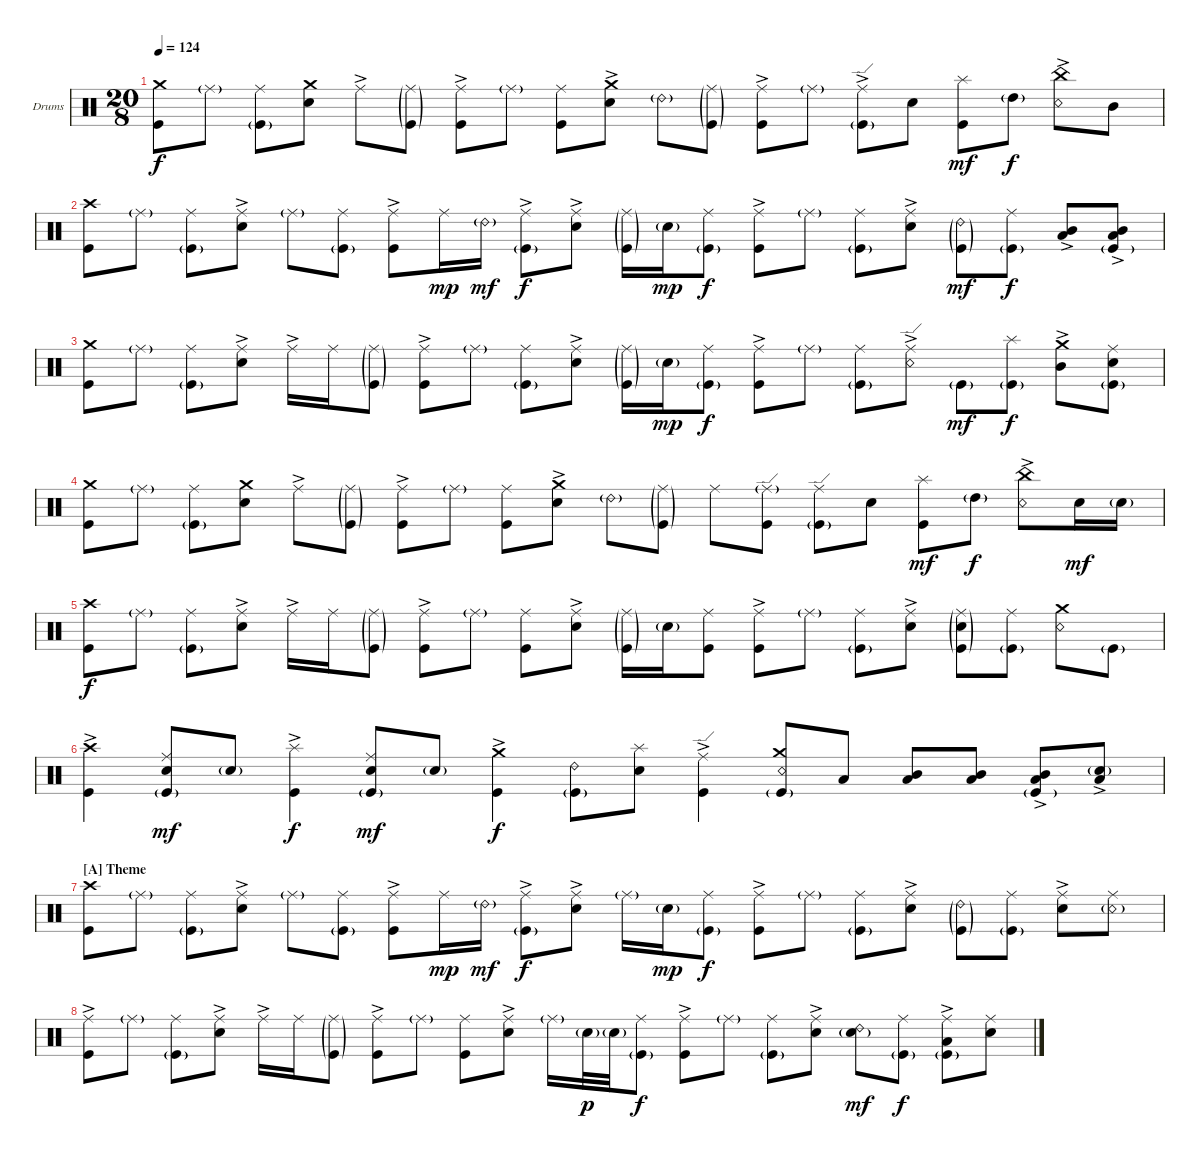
\bracketExtendMode groupsimilarinstruments
\firstSystemTrackNameOrientation horizontal
\otherSystemsTrackNameOrientation horizontal
\track ("Drumkit" "Drums") {instrument percussion}
\staff {score}
\articulation defaults
\ts (20 8)
\tempo 124
\clef neutral
\ks c
("Kick (hit)" "Crash medium (hit)").8{dy f} "Ride (middle)"{g}.8 ("Ride (middle)" "Kick (hit)"{g}).8 ("Snare (hit) 2" "Crash medium (hit)").8 "Ride (middle)"{ac}.8 ("Ride (middle)"{g} "Kick (hit)"{g}).8 ("Ride (middle)"{ac} "Kick (hit)").8 "Ride (middle)"{g}.8 ("Ride (middle)" "Kick (hit)").8 ("Snare (hit) 2" "Crash medium (hit)"{ac}).8 "Ride (bell) 2"{g}.8 ("Ride (middle)"{g} "Kick (hit)"{g}).8 ("Ride (middle)"{ac} "Kick (hit)").8 "Ride (middle)"{g}.8 ("Ride (edge)"{ac} "Kick (hit)"{g}).8 "Snare (hit) 2".8 ("Kick (hit)" "Splash (hit)").8{dy mf} "High Tom (hit)"{g}.8{dy f} ("Snare (rim shot)" "China (hit)"{ac}).8 "Mid Tom (hit)".8 |
("Kick (hit)" "Crash high (hit)").8 "Ride (middle)"{g}.8 ("Ride (middle)" "Kick (hit)"{g}).8 ("Ride (middle)"{ac} "Snare (hit) 2").8 "Ride (middle)"{g}.8 ("Ride (middle)" "Kick (hit)"{g}).8 ("Ride (middle)"{ac} "Kick (hit)").8 "Ride (middle)".16{dy mp} "Ride (bell) 2"{g}.16{dy mf} ("Ride (middle)"{ac} "Kick (hit)"{g}).8{dy f} ("Ride (middle)"{ac} "Snare (hit) 2").8 ("Ride (middle)"{g} "Kick (hit)"{g}).16 "Snare (hit) 2"{g}.16{dy mp} ("Ride (middle)" "Kick (hit)"{g}).8{dy f} ("Kick (hit)" "Ride (middle)"{ac}).8 "Ride (middle)"{g}.8 ("Ride (middle)" "Kick (hit)"{g}).8 ("Ride (middle)"{ac} "Snare (hit) 2").8 ("Ride (bell) 2"{g} "Kick (hit)"{g}).8{dy mf} ("Ride (middle)" "Kick (hit)"{g}).8{dy f} ("Mid Tom (hit)"{ac} "Low Tom (hit)"{ac}).8 ("Mid Tom (hit)" "Low Tom (hit)"{ac} "Kick (hit)"{g}).8 |
("Kick (hit)" "Crash medium (hit)").8 "Ride (middle)"{g}.8 ("Ride (middle)" "Kick (hit)"{g}).8 ("Ride (middle)"{ac} "Snare (hit) 2").8 "Ride (middle)"{ac}.16 "Ride (middle)".16 ("Ride (middle)"{g} "Kick (hit)"{g}).8 ("Ride (middle)"{ac} "Kick (hit)").8 "Ride (middle)"{g}.8 ("Ride (middle)" "Kick (hit)"{g}).8 ("Ride (middle)"{ac} "Snare (hit) 2").8 ("Ride (middle)"{g} "Kick (hit)"{g}).16 "Snare (hit) 2"{g}.16{dy mp} ("Ride (middle)" "Kick (hit)"{g}).8{dy f} ("Kick (hit)" "Ride (middle)"{ac}).8 "Ride (middle)"{g}.8 ("Ride (middle)" "Kick (hit)"{g}).8 ("Ride (edge)"{ac} "Snare (rim shot)").8 "Kick (hit)"{g}.8{dy mf} ("Kick (hit)"{g} "Splash (hit)").8{dy f} ("Mid Tom (hit)"{ac} "Crash medium (hit)").8 ("Kick (hit)"{g} "Snare (hit) 2" "Ride (middle)").8 |
("Kick (hit)" "Crash medium (hit)").8 "Ride (middle)"{g}.8 ("Ride (middle)" "Kick (hit)"{g}).8 ("Snare (hit) 2" "Crash medium (hit)").8 "Ride (middle)"{ac}.8 ("Ride (middle)"{g} "Kick (hit)"{g}).8 ("Ride (middle)"{ac} "Kick (hit)").8 "Ride (middle)"{g}.8 ("Ride (middle)" "Kick (hit)").8 ("Snare (hit) 2" "Crash medium (hit)"{ac}).8 "Ride (bell) 2"{g}.8 ("Ride (middle)"{g} "Kick (hit)"{g}).8 "Ride (middle)".8 ("Ride (edge)"{g} "Kick (hit)").8 ("Kick (hit)"{g} "Ride (edge)").8 "Snare (hit) 2".8 ("Kick (hit)" "Splash (hit)").8{dy mf} "High Tom (hit)"{g}.8{dy f} ("Snare (rim shot)" "China (hit)"{ac}).8 "Snare (hit) 2".16{dy mf} "Snare (hit) 2"{g}.16 |
("Kick (hit)" "Crash high (hit)").8{dy f} "Ride (middle)"{g}.8 ("Ride (middle)" "Kick (hit)"{g}).8 ("Ride (middle)"{ac} "Snare (hit) 2").8 "Ride (middle)"{ac}.16 "Ride (middle)".16 ("Ride (middle)"{g} "Kick (hit)"{g}).8 ("Ride (middle)"{ac} "Kick (hit)").8 "Ride (middle)"{g}.8 ("Ride (middle)" "Kick (hit)").8 ("Ride (middle)"{ac} "Snare (hit) 2").8 ("Ride (middle)"{g} "Kick (hit)"{g}).16 "Snare (hit) 2"{g}.16 ("Ride (middle)" "Kick (hit)").8 ("Kick (hit)" "Ride (middle)"{ac}).8 "Ride (middle)"{g}.8 ("Ride (middle)" "Kick (hit)"{g}).8 ("Ride (middle)"{ac} "Snare (hit) 2").8 ("Ride (middle)"{g} "Snare (hit) 2"{g} "Kick (hit)"{g}).8 ("Ride (middle)" "Kick (hit)"{g}).8 ("Snare (rim shot)" "Crash medium (hit)").8 "Kick (hit)"{g}.8 |
("Kick (hit)" "Crash high (hit)"{ac}).4 ("Kick (hit)"{g} "Ride (middle)" "Snare (hit) 2").8{dy mf} "Snare (hit) 2"{g}.8 ("Kick (hit)" "Splash (hit)"{ac}).4{dy f} ("Kick (hit)"{g} "Ride (middle)" "Snare (hit) 2").8{dy mf} "Snare (hit) 2"{g}.8 ("Kick (hit)" "Crash medium (hit)"{ac}).4{dy f} ("Kick (hit)"{g} "Ride (bell) 2").8 ("Snare (hit) 2" "Splash (hit)").8 ("Kick (hit)" "Ride (edge)"{ac}).4 ("Snare (rim shot)" "Crash medium (hit)" "Kick (hit)"{g}).8 "Low Tom (hit)".8 ("Low Tom (hit)" "Mid Tom (hit)").8 ("Low Tom (hit)" "Mid Tom (hit)").8 ("Low Tom (hit)"{ac} "Mid Tom (hit)" "Kick (hit)"{g}).8 ("Snare (hit) 2"{g} "Low Tom (hit)"{ac}).8 |
\section ("A" "Theme")
("Kick (hit)" "Crash high (hit)").8 "Ride (middle)"{g}.8 ("Ride (middle)" "Kick (hit)"{g}).8 ("Ride (middle)"{ac} "Snare (hit) 2").8 "Ride (middle)"{g}.8 ("Ride (middle)" "Kick (hit)"{g}).8 ("Ride (middle)"{ac} "Kick (hit)").8 "Ride (middle)".16{dy mp} "Ride (bell) 2"{g}.16{dy mf} ("Ride (middle)"{ac} "Kick (hit)"{g}).8{dy f} ("Ride (middle)"{ac} "Snare (hit) 2").8 "Ride (middle)"{g}.16 "Snare (hit) 2"{g}.16{dy mp} ("Ride (middle)" "Kick (hit)"{g}).8{dy f} ("Kick (hit)" "Ride (middle)"{ac}).8 "Ride (middle)"{g}.8 ("Ride (middle)" "Kick (hit)"{g}).8 ("Ride (middle)"{ac} "Snare (hit) 2").8 ("Ride (bell) 2"{g} "Kick (hit)"{g}).8 ("Ride (middle)" "Kick (hit)"{g}).8 ("Ride (middle)"{ac} "Snare (hit) 2").8 ("Ride (middle)" "Snare (rim shot)"{g}).8 |
("Kick (hit)" "Ride (middle)"{ac}).8 "Ride (middle)"{g}.8 ("Ride (middle)" "Kick (hit)"{g}).8 ("Ride (middle)"{ac} "Snare (hit) 2").8 "Ride (middle)"{ac}.16 "Ride (middle)".16 ("Ride (middle)"{g} "Kick (hit)"{g}).8 ("Ride (middle)"{ac} "Kick (hit)").8 "Ride (middle)"{g}.8 ("Ride (middle)" "Kick (hit)").8 ("Ride (middle)"{ac} "Snare (hit) 2").8 "Ride (middle)"{g}.16 "Snare (hit) 2"{g}.32{dy p} "Snare (hit) 2"{g}.32 ("Ride (middle)" "Kick (hit)"{g}).8{dy f} ("Kick (hit)" "Ride (middle)"{ac}).8 "Ride (middle)"{g}.8 ("Ride (middle)" "Kick (hit)"{g}).8 ("Ride (middle)"{ac} "Snare (hit) 2").8 ("Ride (bell) 2" "Snare (hit) 2"{g}).8{dy mf} ("Ride (middle)" "Kick (hit)"{g}).8{dy f} ("Low Tom (hit)"{ac} "Kick (hit)"{g} "Ride (middle)").8 ("Snare (hit) 2" "Ride (middle)").8
